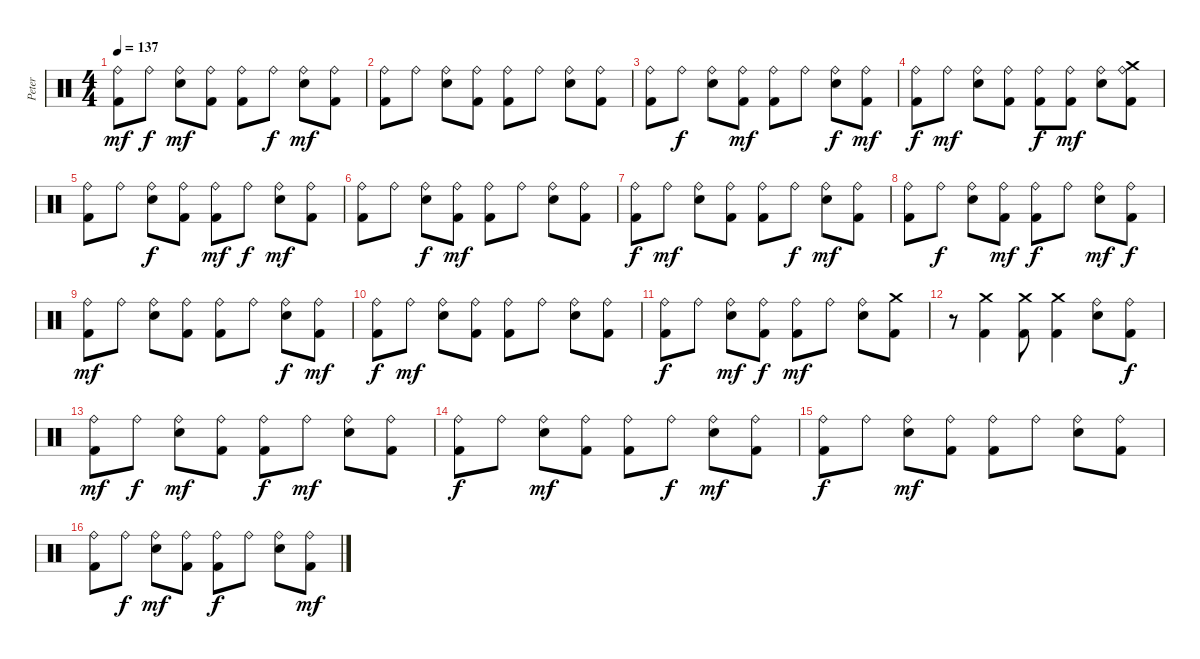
\track ("Peter" "Peter") {instrument percussion}
\staff {score}
\articulation defaults
\ts (4 4)
\tempo 137
\clef neutral
\ks c
("Ride (bell)" "Kick (hit) 2").8{dy mf} "Ride (bell)".8{dy f} ("Electric Snare (hit)" "Ride (bell)").8{dy mf} ("Kick (hit) 2" "Ride (bell)").8 ("Ride (bell)" "Kick (hit) 2").8 "Ride (bell)".8{dy f} ("Electric Snare (hit)" "Ride (bell)").8{dy mf} ("Kick (hit) 2" "Ride (bell)").8 |
("Ride (bell)" "Kick (hit) 2").8 "Ride (bell)".8 ("Electric Snare (hit)" "Ride (bell)").8 ("Kick (hit) 2" "Ride (bell)").8 ("Ride (bell)" "Kick (hit) 2").8 "Ride (bell)".8 ("Ride (bell)" "Electric Snare (hit)").8 ("Kick (hit) 2" "Ride (bell)").8 |
("Ride (bell)" "Kick (hit) 2").8 "Ride (bell)".8{dy f} ("Electric Snare (hit)" "Ride (bell)").8 ("Kick (hit) 2" "Ride (bell)").8{dy mf} ("Ride (bell)" "Kick (hit) 2").8 "Ride (bell)".8 ("Ride (bell)" "Electric Snare (hit)").8{dy f} ("Kick (hit) 2" "Ride (bell)").8{dy mf} |
("Ride (bell)" "Kick (hit) 2").8{dy f} "Ride (bell)".8{dy mf} ("Ride (bell)" "Electric Snare (hit)").8 ("Ride (bell)" "Kick (hit) 2").8 ("Ride (bell)" "Kick (hit) 2").8{dy f} ("Kick (hit) 2" "Ride (bell)").8{dy mf} ("Ride (bell)" "Electric Snare (hit)").8 ("Crash medium (hit)" "Kick (hit) 2" "Ride (bell)").8 |
("Kick (hit) 2" "Ride (bell)").8 "Ride (bell)".8 ("Ride (bell)" "Electric Snare (hit)").8{dy f} ("Ride (bell)" "Kick (hit) 2").8 ("Kick (hit) 2" "Ride (bell)").8{dy mf} "Ride (bell)".8{dy f} ("Ride (bell)" "Electric Snare (hit)").8{dy mf} ("Kick (hit) 2" "Ride (bell)").8 |
("Kick (hit) 2" "Ride (bell)").8 "Ride (bell)".8 ("Ride (bell)" "Electric Snare (hit)").8{dy f} ("Kick (hit) 2" "Ride (bell)").8{dy mf} ("Ride (bell)" "Kick (hit) 2").8 "Ride (bell)".8 ("Electric Snare (hit)" "Ride (bell)").8 ("Ride (bell)" "Kick (hit) 2").8 |
("Ride (bell)" "Kick (hit) 2").8{dy f} "Ride (bell)".8{dy mf} ("Electric Snare (hit)" "Ride (bell)").8 ("Kick (hit) 2" "Ride (bell)").8 ("Kick (hit) 2" "Ride (bell)").8 "Ride (bell)".8{dy f} ("Electric Snare (hit)" "Ride (bell)").8{dy mf} ("Ride (bell)" "Kick (hit) 2").8 |
("Ride (bell)" "Kick (hit) 2").8 "Ride (bell)".8{dy f} ("Electric Snare (hit)" "Ride (bell)").8 ("Ride (bell)" "Kick (hit) 2").8{dy mf} ("Ride (bell)" "Kick (hit) 2").8{dy f} "Ride (bell)".8 ("Electric Snare (hit)" "Ride (bell)").8{dy mf} ("Kick (hit) 2" "Ride (bell)").8{dy f} |
("Ride (bell)" "Kick (hit) 2").8{dy mf} "Ride (bell)".8 ("Electric Snare (hit)" "Ride (bell)").8 ("Ride (bell)" "Kick (hit) 2").8 ("Ride (bell)" "Kick (hit) 2").8 "Ride (bell)".8 ("Ride (bell)" "Electric Snare (hit)").8{dy f} ("Ride (bell)" "Kick (hit) 2").8{dy mf} |
("Ride (bell)" "Kick (hit) 2").8{dy f} "Ride (bell)".8{dy mf} ("Electric Snare (hit)" "Ride (bell)").8 ("Kick (hit) 2" "Ride (bell)").8 ("Ride (bell)" "Kick (hit) 2").8 "Ride (bell)".8 ("Ride (bell)" "Electric Snare (hit)").8 ("Kick (hit) 2" "Ride (bell)").8 |
("Ride (bell)" "Kick (hit) 2").8{dy f} "Ride (bell)".8 ("Electric Snare (hit)" "Ride (bell)").8{dy mf} ("Kick (hit) 2" "Ride (bell)").8{dy f} ("Ride (bell)" "Kick (hit) 2").8{dy mf} "Ride (bell)".8 ("Ride (bell)" "Electric Snare (hit)").8 ("Kick (hit) 2" "Crash medium (hit)").8 |
r.8 ("Crash medium (hit)" "Kick (hit) 2").4 ("Crash medium (hit)" "Kick (hit) 2").8 ("Kick (hit) 2" "Crash medium (hit)").4 ("Electric Snare (hit)" "Ride (bell)").8 ("Ride (bell)" "Kick (hit) 2").8{dy f} |
("Kick (hit) 2" "Ride (bell)").8{dy mf} "Ride (bell)".8{dy f} ("Electric Snare (hit)" "Ride (bell)").8{dy mf} ("Ride (bell)" "Kick (hit) 2").8 ("Ride (bell)" "Kick (hit) 2").8{dy f} "Ride (bell)".8{dy mf} ("Electric Snare (hit)" "Ride (bell)").8 ("Ride (bell)" "Kick (hit) 2").8 |
("Ride (bell)" "Kick (hit) 2").8{dy f} "Ride (bell)".8 ("Electric Snare (hit)" "Ride (bell)").8{dy mf} ("Ride (bell)" "Kick (hit) 2").8 ("Ride (bell)" "Kick (hit) 2").8 "Ride (bell)".8{dy f} ("Ride (bell)" "Electric Snare (hit)").8{dy mf} ("Kick (hit) 2" "Ride (bell)").8 |
("Kick (hit) 2" "Ride (bell)").8{dy f} "Ride (bell)".8 ("Electric Snare (hit)" "Ride (bell)").8{dy mf} ("Ride (bell)" "Kick (hit) 2").8 ("Ride (bell)" "Kick (hit) 2").8 "Ride (bell)".8 ("Ride (bell)" "Electric Snare (hit)").8 ("Ride (bell)" "Kick (hit) 2").8 |
("Kick (hit) 2" "Ride (bell)").8 "Ride (bell)".8{dy f} ("Ride (bell)" "Electric Snare (hit)").8{dy mf} ("Ride (bell)" "Kick (hit) 2").8 ("Ride (bell)" "Kick (hit) 2").8{dy f} "Ride (bell)".8 ("Electric Snare (hit)" "Ride (bell)").8 ("Ride (bell)" "Kick (hit) 2").8{dy mf}
